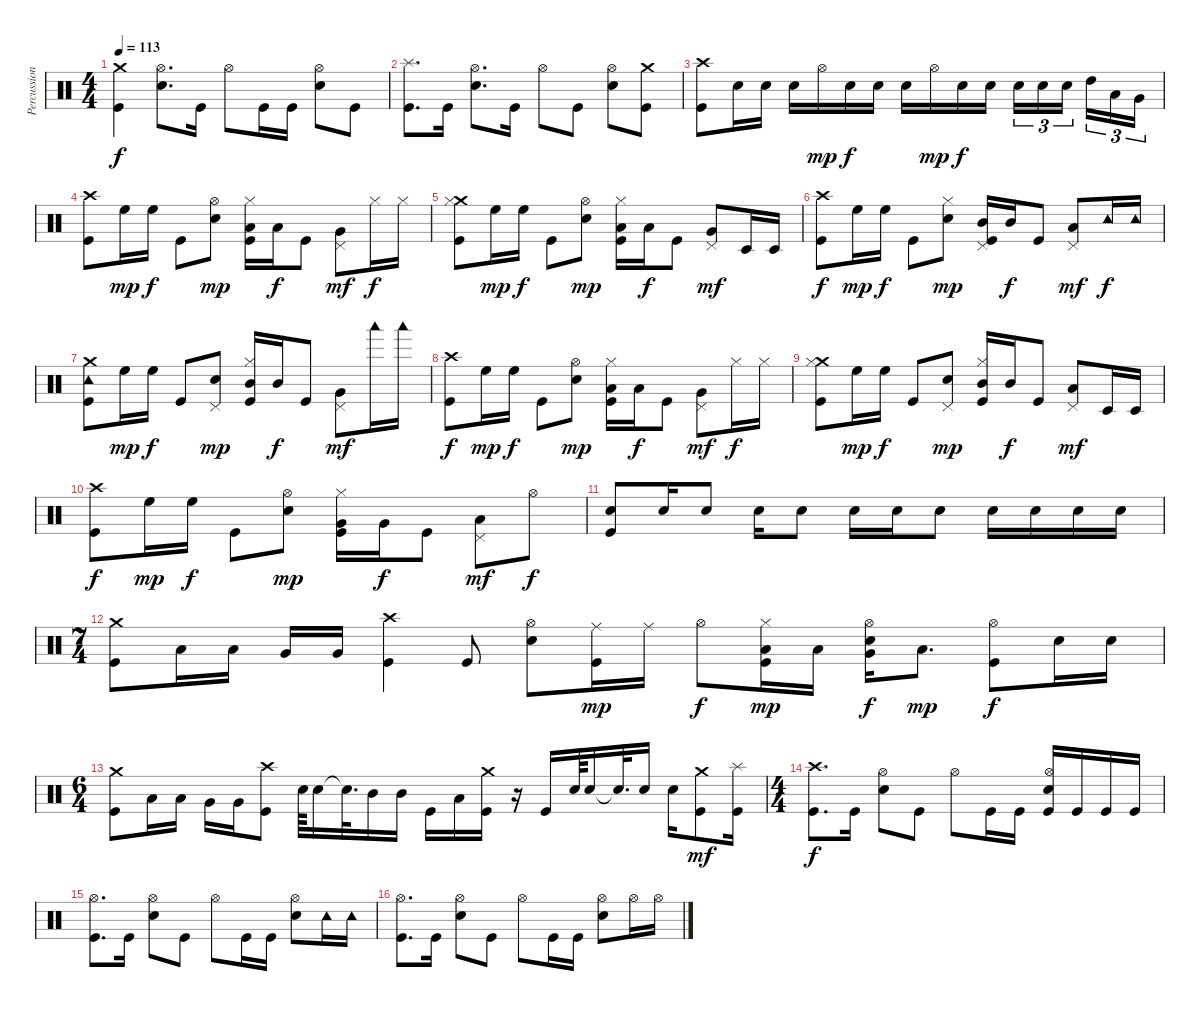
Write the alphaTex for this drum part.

\track ("Percussioni" "Percussion") {instrument percussion}
\staff {score}
\articulation defaults
\ts (4 4)
\tempo 113
\clef neutral
\ks c
("Crash medium (hit)" "Kick (hit)").4{dy f} ("Hi-Hat (open)" "Snare (hit) 2").8{d} "Kick (hit)".16 "Hi-Hat (open)".8 "Kick (hit)".16 "Kick (hit)".16 ("Hi-Hat (open)" "Snare (hit) 2").8 "Kick (hit)".8 |
("Splash (hit)" "Kick (hit)").8{d} "Kick (hit)".16 ("Hi-Hat (open)" "Snare (hit) 2").8{d} "Kick (hit)".16 "Hi-Hat (open)".8 "Kick (hit)".8 ("Hi-Hat (open)" "Snare (hit) 2").8 ("Crash medium (hit)" "Kick (hit)").8 |
("Crash high (hit)" "Kick (hit)").8 "Snare (hit) 2".16 "Snare (hit) 2".16 "Snare (hit) 2".16 "Hi-Hat (open)".16{dy mp} "Snare (hit) 2".16{dy f} "Snare (hit) 2".16 "Snare (hit) 2".16 "Hi-Hat (open)".16{dy mp} "Snare (hit) 2".16{dy f} "Snare (hit) 2".16 "Snare (hit) 2".16{tu (3 2)} "Snare (hit) 2".16{tu (3 2)} "Snare (hit) 2".16{tu (3 2) beam splitsecondary} "High Tom (hit)".16{tu (3 2)} "Low Tom (hit)".16{tu (3 2)} "Very Low Tom (hit)".16{tu (3 2)} |
("Crash high (hit)" "Kick (hit)").8 "High Floor Tom (hit)".16{dy mp} "High Floor Tom (hit)".16{dy f} "Kick (hit)".8 ("Hi-Hat (open)" "Snare (hit) 2").8{dy mp} ("Low Tom (hit)" "Hi-Hat (closed)" "Kick (hit)").16 "Low Tom (hit)".16{dy f} "Kick (hit)".8 ("Very Low Tom (hit)" "Pedal Hi-Hat (hit)").8{dy mf} "Hi-Hat (closed)".16{dy f} "Hi-Hat (closed)".16 |
("Crash medium (hit)" "Hi-Hat (closed)" "Kick (hit)").8 "High Floor Tom (hit)".16{dy mp} "High Floor Tom (hit)".16{dy f} "Kick (hit)".8 ("Hi-Hat (open)" "Snare (hit) 2").8{dy mp} ("Low Tom (hit)" "Hi-Hat (closed)" "Kick (hit)").16 "Low Tom (hit)".16{dy f} "Kick (hit)".8 ("Very Low Tom (hit)" "Pedal Hi-Hat (hit)").8{dy mf} "Timbale low (hit)".16 "Timbale low (hit)".16 |
("Crash high (hit)" "Kick (hit)").8{dy f} "High Floor Tom (hit)".16{dy mp} "High Floor Tom (hit)".16{dy f} "Kick (hit)".8 ("Hi-Hat (closed)" "Snare (hit) 2").8{dy mp} ("Mid Tom (hit)" "Pedal Hi-Hat (hit)" "Kick (hit)").16 "Mid Tom (hit)".16{dy f} "Kick (hit)".8 ("Low Tom (hit)" "Pedal Hi-Hat (hit)").8{dy mf} "Tambourine (hit)".16{dy f} "Tambourine (hit)".16 |
("Crash medium (hit)" "Tambourine (hit)" "Kick (hit)").8 "High Floor Tom (hit)".16{dy mp} "High Floor Tom (hit)".16{dy f} "Kick (hit)".8 ("Pedal Hi-Hat (hit)" "Snare (hit) 2").8{dy mp} ("Mid Tom (hit)" "Hi-Hat (closed)" "Kick (hit)").16 "Mid Tom (hit)".16{dy f} "Kick (hit)".8 ("Very Low Tom (hit)" "Pedal Hi-Hat (hit)").8{dy mf} "Woodblock low (hit)".16 "Woodblock low (hit)".16 |
("Crash high (hit)" "Kick (hit)").8{dy f} "High Floor Tom (hit)".16{dy mp} "High Floor Tom (hit)".16{dy f} "Kick (hit)".8 ("Hi-Hat (open)" "Snare (hit) 2").8{dy mp} ("Low Tom (hit)" "Hi-Hat (closed)" "Kick (hit)").16 "Low Tom (hit)".16{dy f} "Kick (hit)".8 ("Very Low Tom (hit)" "Pedal Hi-Hat (hit)").8{dy mf} "Hi-Hat (closed)".16{dy f} "Hi-Hat (closed)".16 |
("Crash medium (hit)" "Hi-Hat (closed)" "Kick (hit)").8 "High Floor Tom (hit)".16{dy mp} "High Floor Tom (hit)".16{dy f} "Kick (hit)".8 ("Pedal Hi-Hat (hit)" "Snare (hit) 2").8{dy mp} ("Mid Tom (hit)" "Hi-Hat (closed)" "Kick (hit)").16 "Mid Tom (hit)".16{dy f} "Kick (hit)".8 ("Low Tom (hit)" "Pedal Hi-Hat (hit)").8{dy mf} "Timbale low (hit)".16 "Timbale low (hit)".16 |
("Crash high (hit)" "Kick (hit)").8{dy f} "High Floor Tom (hit)".16{dy mp} "High Floor Tom (hit)".16{dy f} "Kick (hit)".8 ("Hi-Hat (open)" "Snare (hit) 2").8{dy mp} ("Very Low Tom (hit)" "Hi-Hat (closed)" "Kick (hit)").16 "Very Low Tom (hit)".16{dy f} "Kick (hit)".8 ("Low Floor Tom (hit)" "Pedal Hi-Hat (hit)").8{dy mf} "Hi-Hat (open)".8{dy f} |
("Snare (hit) 2" "Kick (hit)").8 "Snare (hit) 2".16 "Snare (hit) 2".8 "Snare (hit) 2".16 "Snare (hit) 2".8 "Snare (hit) 2".16 "Snare (hit) 2".16 "Snare (hit) 2".8 "Snare (hit) 2".16 "Snare (hit) 2".16 "Snare (hit) 2".16 "Snare (hit) 2".16 |
\ts (7 4)
("Crash medium (hit)" "Kick (hit)").8 "Low Tom (hit)".16 "Low Tom (hit)".16 "Very Low Tom (hit)".16 "Very Low Tom (hit)".16 ("Crash high (hit)" "Kick (hit)").4 "Kick (hit)".8 ("Hi-Hat (open)" "Snare (hit) 2").8 ("Ride (middle)" "Kick (hit)").16{dy mp} "Ride (middle)".16 "Hi-Hat (open)".8{dy f} ("Low Tom (hit)" "Hi-Hat (closed)" "Kick (hit)").16{dy mp} "Low Tom (hit)".16 ("Very Low Tom (hit)" "Hi-Hat (open)" "Snare (hit) 2").16{dy f} "Low Floor Tom (hit)".8{d dy mp} ("Hi-Hat (open)" "Kick (hit)").8{dy f} "Snare (hit) 2".16 "Snare (hit) 2".16 |
\ts (6 4)
("Crash medium (hit)" "Kick (hit)").8 "Low Tom (hit)".16 "Low Tom (hit)".16 "Very Low Tom (hit)".16 "Very Low Tom (hit)".16 ("Crash high (hit)" "Kick (hit)").8 "Snare (hit) 2".64 "Snare (hit) 2".16 "Snare (hit)"{t}.32{d} "Mid Tom (hit)".16 "Mid Tom (hit)".16 "Kick (hit)".16 "Low Tom (hit)".16 ("Crash medium (hit)" "Kick (hit)").16 r.16 "Kick (hit)".16 "Snare (hit) 2".64 "Snare (hit) 2".16 "Snare (hit)"{t}.32{d} "Snare (hit) 2".16 "Snare (hit) 2".16 ("Crash medium (hit)" "Kick (hit)").8{dy mf} ("Splash (hit)" "Kick (hit)").16 |
\ts (4 4)
("Crash high (hit)" "Kick (hit)").8{d dy f} "Kick (hit)".16 ("Hi-Hat (open)" "Snare (hit) 2").8 "Kick (hit)".8 "Hi-Hat (open)".8 "Kick (hit)".16 "Kick (hit)".16 ("Hi-Hat (open)" "Snare (hit) 2" "Kick (hit)").16 "Kick (hit)".16 "Kick (hit)".16 "Kick (hit)".16 |
("Hi-Hat (open)" "Kick (hit)").8{d} "Kick (hit)".16 ("Hi-Hat (open)" "Snare (hit) 2").8 "Kick (hit)".8 "Hi-Hat (open)".8 "Kick (hit)".16 "Kick (hit)".16 ("Hi-Hat (open)" "Snare (hit) 2").8 "Tambourine (hit)".16 "Tambourine (hit)".16 |
("Hi-Hat (open)" "Kick (hit)").8{d} "Kick (hit)".16 ("Hi-Hat (open)" "Snare (hit) 2").8 "Kick (hit)".8 "Hi-Hat (open)".8 "Kick (hit)".16 "Kick (hit)".16 ("Hi-Hat (open)" "Snare (hit) 2").8 "Hi-Hat (open)".16 "Hi-Hat (open)".16
